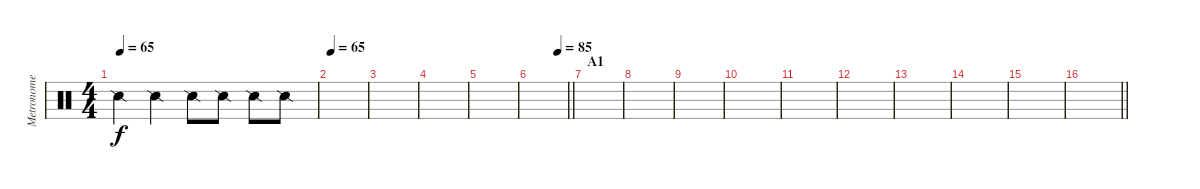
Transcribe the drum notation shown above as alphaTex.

\track ("Metronome" "Metronome") {instrument percussion}
\staff {score}
\articulation defaults
\ts (4 4)
\tempo 65
\clef neutral
\ks c "Snare (side stick) 2".4{dy f} "Snare (side stick) 2".4 "Snare (side stick) 2".8 "Snare (side stick) 2".8 "Snare (side stick) 2".8 "Snare (side stick) 2".8
|
\tempo 65
|
|
|
|
\tempo (85 0.75)
\barLineRight lightlight
|
\section ("" "A1")
|
|
|
|
|
|
|
|
|
\barLineRight lightlight
